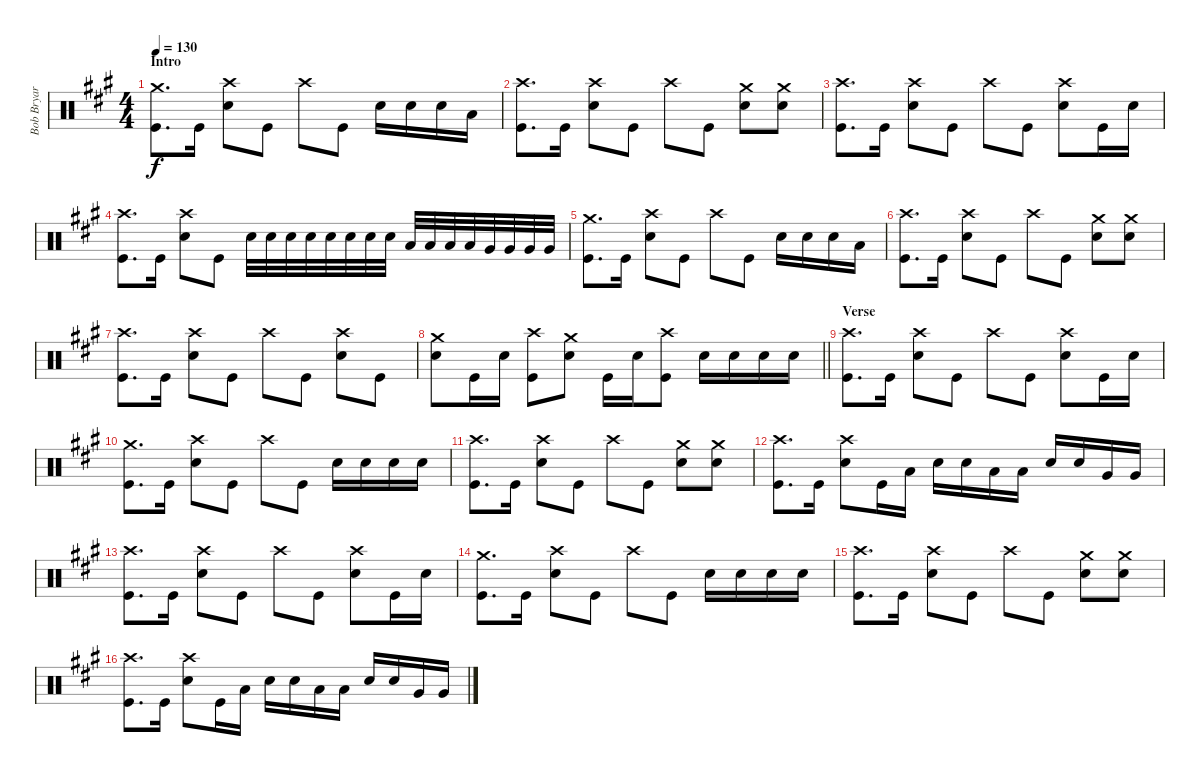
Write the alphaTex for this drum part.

\track ("Bob Bryar" "Bob Bryar") {instrument percussion}
\staff {score}
\articulation defaults
\ts (4 4)
\section ("" "Intro")
\tempo 130
\clef neutral
\ks a
("Crash medium (hit)" "Kick (hit)").8{d dy f} "Kick (hit)".16 ("Crash high (hit)" "Snare (hit) 2").8 "Kick (hit)".8 "Crash high (hit)".8 "Kick (hit)".8 "Snare (hit) 2".16 "Snare (hit) 2".16 "Snare (hit) 2".16 "Low Tom (hit)".16 |
("Crash high (hit)" "Kick (hit)").8{d} "Kick (hit)".16 ("Crash high (hit)" "Snare (hit) 2").8 "Kick (hit)".8 "Crash high (hit)".8 "Kick (hit)".8 ("Crash medium (hit)" "Snare (hit) 2").8 ("Crash medium (hit)" "Snare (hit) 2").8 |
("Crash high (hit)" "Kick (hit)").8{d} "Kick (hit)".16 ("Crash high (hit)" "Snare (hit) 2").8 "Kick (hit)".8 "Crash high (hit)".8 "Kick (hit)".8 ("Crash high (hit)" "Snare (hit) 2").8 "Kick (hit)".16 "Snare (hit) 2".16 |
("Crash high (hit)" "Kick (hit)").8{d} "Kick (hit)".16 ("Crash high (hit)" "Snare (hit) 2").8 "Kick (hit)".8 "Snare (hit) 2".32 "Snare (hit) 2".32 "Snare (hit) 2".32 "Snare (hit) 2".32 "Snare (hit) 2".32 "Snare (hit) 2".32 "Snare (hit) 2".32 "Snare (hit) 2".32 "Low Tom (hit)".32 "Low Tom (hit)".32 "Low Tom (hit)".32 "Low Tom (hit)".32 "Very Low Tom (hit)".32 "Very Low Tom (hit)".32 "Very Low Tom (hit)".32 "Very Low Tom (hit)".32 |
("Crash medium (hit)" "Kick (hit)").8{d} "Kick (hit)".16 ("Crash high (hit)" "Snare (hit) 2").8 "Kick (hit)".8 "Crash high (hit)".8 "Kick (hit)".8 "Snare (hit) 2".16 "Snare (hit) 2".16 "Snare (hit) 2".16 "Low Tom (hit)".16 |
("Crash high (hit)" "Kick (hit)").8{d} "Kick (hit)".16 ("Crash high (hit)" "Snare (hit) 2").8 "Kick (hit)".8 "Crash high (hit)".8 "Kick (hit)".8 ("Crash medium (hit)" "Snare (hit) 2").8 ("Crash medium (hit)" "Snare (hit) 2").8 |
("Crash high (hit)" "Kick (hit)").8{d} "Kick (hit)".16 ("Crash high (hit)" "Snare (hit) 2").8 "Kick (hit)".8 "Crash high (hit)".8 "Kick (hit)".8 ("Crash high (hit)" "Snare (hit) 2").8 "Kick (hit)".8 |
\barLineRight lightlight
("Crash medium (hit)" "Snare (hit) 2").8 "Kick (hit)".16 "Snare (hit) 2".16 ("Crash high (hit)" "Kick (hit)").8 ("Crash medium (hit)" "Snare (hit) 2").8 "Kick (hit)".16 "Snare (hit) 2".16 ("Crash high (hit)" "Kick (hit)").8 "Snare (hit) 2".16 "Snare (hit) 2".16 "Snare (hit) 2".16 "Snare (hit) 2".16 |
\section ("" "Verse")
("Crash high (hit)" "Kick (hit)").8{d} "Kick (hit)".16 ("Crash high (hit)" "Snare (hit) 2").8 "Kick (hit)".8 "Crash high (hit)".8 "Kick (hit)".8 ("Crash high (hit)" "Snare (hit) 2").8 "Kick (hit)".16 "Snare (hit) 2".16 |
("Crash medium (hit)" "Kick (hit)").8{d} "Kick (hit)".16 ("Crash high (hit)" "Snare (hit) 2").8 "Kick (hit)".8 "Crash high (hit)".8 "Kick (hit)".8 "Snare (hit) 2".16 "Snare (hit) 2".16 "Snare (hit) 2".16 "Snare (hit) 2".16 |
("Crash high (hit)" "Kick (hit)").8{d} "Kick (hit)".16 ("Crash high (hit)" "Snare (hit) 2").8 "Kick (hit)".8 "Crash high (hit)".8 "Kick (hit)".8 ("Crash medium (hit)" "Snare (hit) 2").8 ("Crash medium (hit)" "Snare (hit) 2").8 |
("Crash high (hit)" "Kick (hit)").8{d} "Kick (hit)".16 ("Crash high (hit)" "Snare (hit) 2").8 "Kick (hit)".16 "Low Tom (hit)".16 "Snare (hit) 2".16 "Snare (hit) 2".16 "Low Tom (hit)".16 "Low Tom (hit)".16 "Snare (hit) 2".16 "Snare (hit) 2".16 "Very Low Tom (hit)".16 "Very Low Tom (hit)".16 |
("Crash high (hit)" "Kick (hit)").8{d} "Kick (hit)".16 ("Crash high (hit)" "Snare (hit) 2").8 "Kick (hit)".8 "Crash high (hit)".8 "Kick (hit)".8 ("Crash high (hit)" "Snare (hit) 2").8 "Kick (hit)".16 "Snare (hit) 2".16 |
("Crash medium (hit)" "Kick (hit)").8{d} "Kick (hit)".16 ("Crash high (hit)" "Snare (hit) 2").8 "Kick (hit)".8 "Crash high (hit)".8 "Kick (hit)".8 "Snare (hit) 2".16 "Snare (hit) 2".16 "Snare (hit) 2".16 "Snare (hit) 2".16 |
("Crash high (hit)" "Kick (hit)").8{d} "Kick (hit)".16 ("Crash high (hit)" "Snare (hit) 2").8 "Kick (hit)".8 "Crash high (hit)".8 "Kick (hit)".8 ("Crash medium (hit)" "Snare (hit) 2").8 ("Crash medium (hit)" "Snare (hit) 2").8 |
("Crash high (hit)" "Kick (hit)").8{d} "Kick (hit)".16 ("Crash high (hit)" "Snare (hit) 2").8 "Kick (hit)".16 "Low Tom (hit)".16 "Snare (hit) 2".16 "Snare (hit) 2".16 "Low Tom (hit)".16 "Low Tom (hit)".16 "Snare (hit) 2".16 "Snare (hit) 2".16 "Very Low Tom (hit)".16 "Very Low Tom (hit)".16
